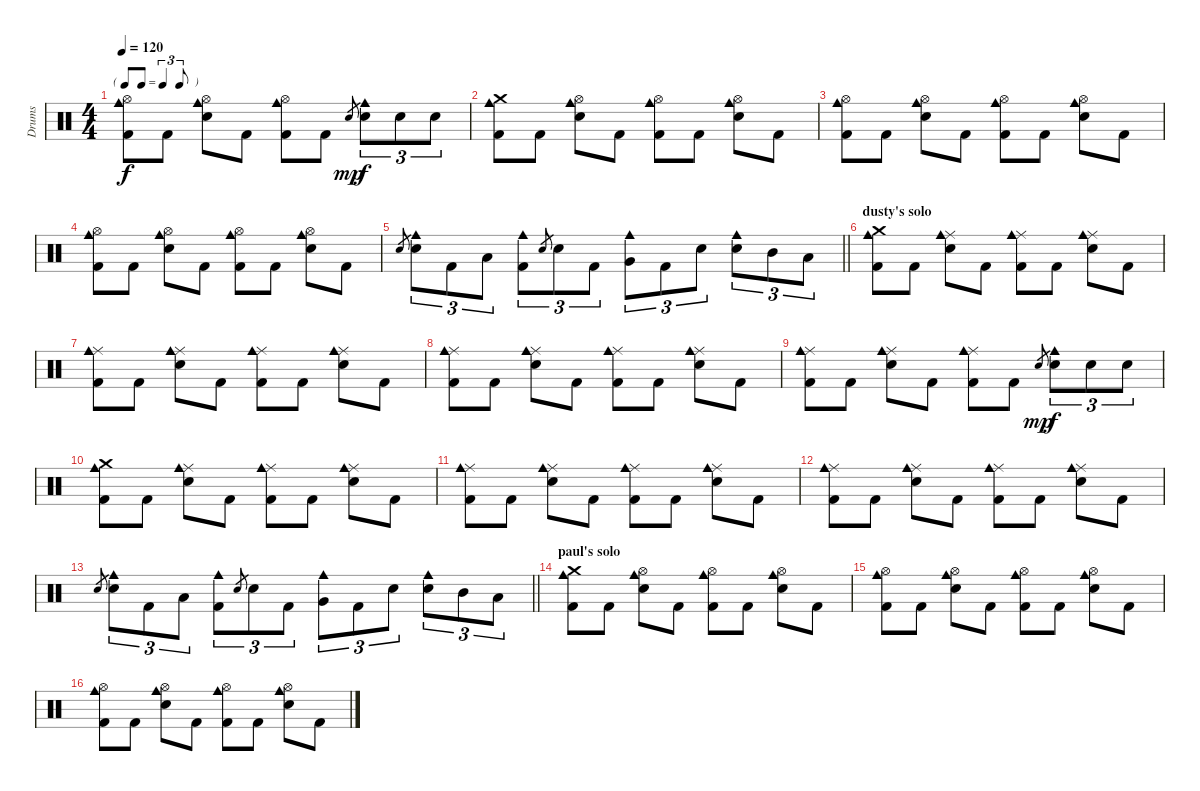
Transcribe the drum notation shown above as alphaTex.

\track ("Drums" "Drums") {instrument percussion}
\staff {score}
\articulation defaults
\ts (4 4)
\tf triplet8th
\tempo 120
\clef neutral
\ks c
("Hi-Hat (open)" "Cowbell medium (hit)" "Kick (hit) 2").8{dy f} "Kick (hit) 2".8 ("Hi-Hat (open)" "Cowbell medium (hit)" "Electric Snare (hit)").8 "Kick (hit) 2".8 ("Hi-Hat (open)" "Cowbell medium (hit)" "Kick (hit) 2").8 "Kick (hit) 2".8 "Electric Snare (hit)".8{gr dy mp} ("Cowbell medium (hit)" "Electric Snare (hit)").8{tu (3 2) dy f} "Electric Snare (hit)".8{tu (3 2)} "Electric Snare (hit)".8{tu (3 2)} |
("Crash medium (hit)" "Cowbell medium (hit)" "Kick (hit) 2").8 "Kick (hit) 2".8 ("Hi-Hat (open)" "Cowbell medium (hit)" "Electric Snare (hit)").8 "Kick (hit) 2".8 ("Hi-Hat (open)" "Cowbell medium (hit)" "Kick (hit) 2").8 "Kick (hit) 2".8 ("Hi-Hat (open)" "Cowbell medium (hit)" "Electric Snare (hit)").8 "Kick (hit) 2".8 |
("Hi-Hat (open)" "Cowbell medium (hit)" "Kick (hit) 2").8 "Kick (hit) 2".8 ("Hi-Hat (open)" "Cowbell medium (hit)" "Electric Snare (hit)").8 "Kick (hit) 2".8 ("Hi-Hat (open)" "Cowbell medium (hit)" "Kick (hit) 2").8 "Kick (hit) 2".8 ("Hi-Hat (open)" "Cowbell medium (hit)" "Electric Snare (hit)").8 "Kick (hit) 2".8 |
("Hi-Hat (open)" "Cowbell medium (hit)" "Kick (hit) 2").8 "Kick (hit) 2".8 ("Hi-Hat (open)" "Cowbell medium (hit)" "Electric Snare (hit)").8 "Kick (hit) 2".8 ("Hi-Hat (open)" "Cowbell medium (hit)" "Kick (hit) 2").8 "Kick (hit) 2".8 ("Hi-Hat (open)" "Cowbell medium (hit)" "Electric Snare (hit)").8 "Kick (hit) 2".8 |
\barLineRight lightlight "Electric Snare (hit)".8{gr}
("Cowbell medium (hit)" "Electric Snare (hit)").8{tu (3 2)} "Kick (hit) 2".8{tu (3 2)} "Low Tom (hit)".8{tu (3 2)} ("Cowbell medium (hit)" "Kick (hit) 2").8{tu (3 2)} "Electric Snare (hit)".8{gr} "Electric Snare (hit)".8{tu (3 2)} "Kick (hit) 2".8{tu (3 2)} ("Cowbell medium (hit)" "Very Low Tom (hit)").8{tu (3 2)} "Kick (hit) 2".8{tu (3 2)} "Electric Snare (hit)".8{tu (3 2)} ("Cowbell medium (hit)" "Electric Snare (hit)").8{tu (3 2)} "Mid Tom (hit)".8{tu (3 2)} "Low Tom (hit)".8{tu (3 2)} |
\section ("" "dusty's solo")
("Crash medium (hit)" "Cowbell medium (hit)" "Kick (hit) 2").8 "Kick (hit) 2".8 ("Ride (middle)" "Cowbell medium (hit)" "Electric Snare (hit)").8 "Kick (hit) 2".8 ("Ride (middle)" "Cowbell medium (hit)" "Kick (hit) 2").8 "Kick (hit) 2".8 ("Ride (middle)" "Cowbell medium (hit)" "Electric Snare (hit)").8 "Kick (hit) 2".8 |
("Ride (middle)" "Cowbell medium (hit)" "Kick (hit) 2").8 "Kick (hit) 2".8 ("Ride (middle)" "Cowbell medium (hit)" "Electric Snare (hit)").8 "Kick (hit) 2".8 ("Ride (middle)" "Cowbell medium (hit)" "Kick (hit) 2").8 "Kick (hit) 2".8 ("Ride (middle)" "Cowbell medium (hit)" "Electric Snare (hit)").8 "Kick (hit) 2".8 |
("Ride (middle)" "Cowbell medium (hit)" "Kick (hit) 2").8 "Kick (hit) 2".8 ("Ride (middle)" "Cowbell medium (hit)" "Electric Snare (hit)").8 "Kick (hit) 2".8 ("Ride (middle)" "Cowbell medium (hit)" "Kick (hit) 2").8 "Kick (hit) 2".8 ("Ride (middle)" "Cowbell medium (hit)" "Electric Snare (hit)").8 "Kick (hit) 2".8 |
("Ride (middle)" "Cowbell medium (hit)" "Kick (hit) 2").8 "Kick (hit) 2".8 ("Ride (middle)" "Cowbell medium (hit)" "Electric Snare (hit)").8 "Kick (hit) 2".8 ("Ride (middle)" "Cowbell medium (hit)" "Kick (hit) 2").8 "Kick (hit) 2".8 "Electric Snare (hit)".8{gr dy mp} ("Cowbell medium (hit)" "Electric Snare (hit)").8{tu (3 2) dy f} "Electric Snare (hit)".8{tu (3 2)} "Electric Snare (hit)".8{tu (3 2)} |
("Crash medium (hit)" "Cowbell medium (hit)" "Kick (hit) 2").8 "Kick (hit) 2".8 ("Ride (middle)" "Cowbell medium (hit)" "Electric Snare (hit)").8 "Kick (hit) 2".8 ("Ride (middle)" "Cowbell medium (hit)" "Kick (hit) 2").8 "Kick (hit) 2".8 ("Ride (middle)" "Cowbell medium (hit)" "Electric Snare (hit)").8 "Kick (hit) 2".8 |
("Ride (middle)" "Cowbell medium (hit)" "Kick (hit) 2").8 "Kick (hit) 2".8 ("Ride (middle)" "Cowbell medium (hit)" "Electric Snare (hit)").8 "Kick (hit) 2".8 ("Ride (middle)" "Cowbell medium (hit)" "Kick (hit) 2").8 "Kick (hit) 2".8 ("Ride (middle)" "Cowbell medium (hit)" "Electric Snare (hit)").8 "Kick (hit) 2".8 |
("Ride (middle)" "Cowbell medium (hit)" "Kick (hit) 2").8 "Kick (hit) 2".8 ("Ride (middle)" "Cowbell medium (hit)" "Electric Snare (hit)").8 "Kick (hit) 2".8 ("Ride (middle)" "Cowbell medium (hit)" "Kick (hit) 2").8 "Kick (hit) 2".8 ("Ride (middle)" "Cowbell medium (hit)" "Electric Snare (hit)").8 "Kick (hit) 2".8 |
\barLineRight lightlight "Electric Snare (hit)".8{gr}
("Cowbell medium (hit)" "Electric Snare (hit)").8{tu (3 2)} "Kick (hit) 2".8{tu (3 2)} "Low Tom (hit)".8{tu (3 2)} ("Cowbell medium (hit)" "Kick (hit) 2").8{tu (3 2)} "Electric Snare (hit)".8{gr} "Electric Snare (hit)".8{tu (3 2)} "Kick (hit) 2".8{tu (3 2)} ("Cowbell medium (hit)" "Very Low Tom (hit)").8{tu (3 2)} "Kick (hit) 2".8{tu (3 2)} "Electric Snare (hit)".8{tu (3 2)} ("Cowbell medium (hit)" "Electric Snare (hit)").8{tu (3 2)} "Mid Tom (hit)".8{tu (3 2)} "Low Tom (hit)".8{tu (3 2)} |
\section ("" "paul's solo")
("Crash medium (hit)" "Cowbell medium (hit)" "Kick (hit) 2").8 "Kick (hit) 2".8 ("Hi-Hat (open)" "Cowbell medium (hit)" "Electric Snare (hit)").8 "Kick (hit) 2".8 ("Hi-Hat (open)" "Cowbell medium (hit)" "Kick (hit) 2").8 "Kick (hit) 2".8 ("Hi-Hat (open)" "Cowbell medium (hit)" "Electric Snare (hit)").8 "Kick (hit) 2".8 |
("Hi-Hat (open)" "Cowbell medium (hit)" "Kick (hit) 2").8 "Kick (hit) 2".8 ("Hi-Hat (open)" "Cowbell medium (hit)" "Electric Snare (hit)").8 "Kick (hit) 2".8 ("Hi-Hat (open)" "Cowbell medium (hit)" "Kick (hit) 2").8 "Kick (hit) 2".8 ("Hi-Hat (open)" "Cowbell medium (hit)" "Electric Snare (hit)").8 "Kick (hit) 2".8 |
("Hi-Hat (open)" "Cowbell medium (hit)" "Kick (hit) 2").8 "Kick (hit) 2".8 ("Hi-Hat (open)" "Cowbell medium (hit)" "Electric Snare (hit)").8 "Kick (hit) 2".8 ("Hi-Hat (open)" "Cowbell medium (hit)" "Kick (hit) 2").8 "Kick (hit) 2".8 ("Hi-Hat (open)" "Cowbell medium (hit)" "Electric Snare (hit)").8 "Kick (hit) 2".8
